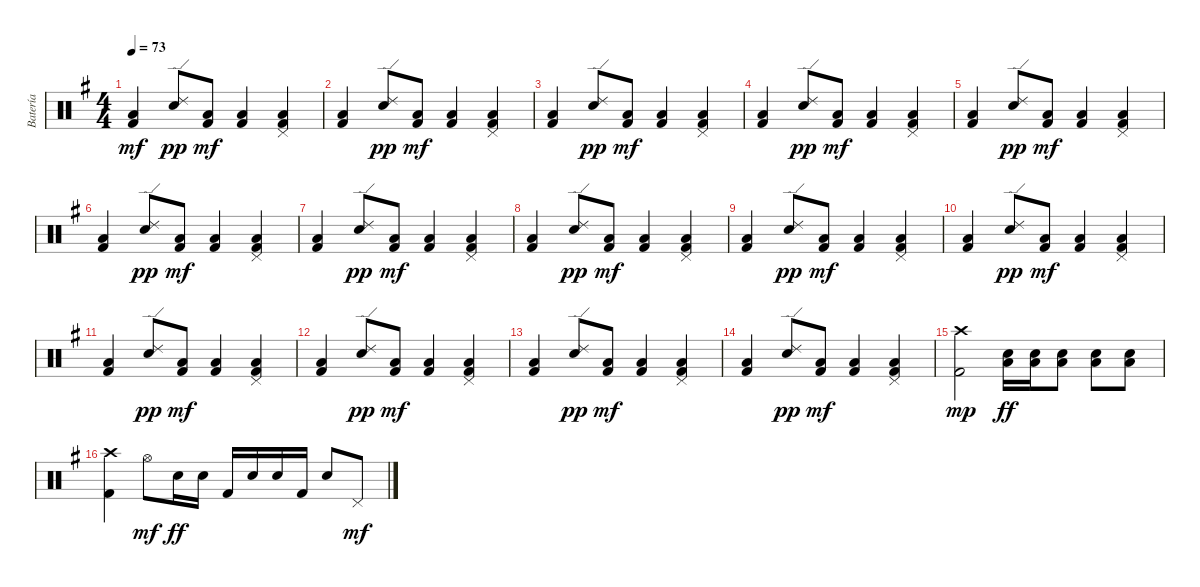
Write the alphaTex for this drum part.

\track ("Batería" "Batería") {instrument percussion}
\staff {score}
\articulation defaults
\ts (4 4)
\tempo 73
\clef neutral
\ks eminor
("Low Floor Tom (hit)" "Kick (hit) 2").4{dy mf} ("Electric Snare (hit)" "Ride (edge) 2").8{dy pp} ("Low Floor Tom (hit)" "Kick (hit) 2").8{dy mf} ("Low Floor Tom (hit)" "Kick (hit) 2").4 ("Pedal Hi-Hat (hit)" "Low Floor Tom (hit)" "Kick (hit) 2").4 |
("Low Floor Tom (hit)" "Kick (hit) 2").4 ("Electric Snare (hit)" "Ride (edge) 2").8{dy pp} ("Low Floor Tom (hit)" "Kick (hit) 2").8{dy mf} ("Low Floor Tom (hit)" "Kick (hit) 2").4 ("Pedal Hi-Hat (hit)" "Low Floor Tom (hit)" "Kick (hit) 2").4 |
("Low Floor Tom (hit)" "Kick (hit) 2").4 ("Electric Snare (hit)" "Ride (edge) 2").8{dy pp} ("Low Floor Tom (hit)" "Kick (hit) 2").8{dy mf} ("Low Floor Tom (hit)" "Kick (hit) 2").4 ("Pedal Hi-Hat (hit)" "Low Floor Tom (hit)" "Kick (hit) 2").4 |
("Low Floor Tom (hit)" "Kick (hit) 2").4 ("Electric Snare (hit)" "Ride (edge) 2").8{dy pp} ("Low Floor Tom (hit)" "Kick (hit) 2").8{dy mf} ("Low Floor Tom (hit)" "Kick (hit) 2").4 ("Pedal Hi-Hat (hit)" "Low Floor Tom (hit)" "Kick (hit) 2").4 |
("Low Floor Tom (hit)" "Kick (hit) 2").4 ("Electric Snare (hit)" "Ride (edge) 2").8{dy pp} ("Low Floor Tom (hit)" "Kick (hit) 2").8{dy mf} ("Low Floor Tom (hit)" "Kick (hit) 2").4 ("Pedal Hi-Hat (hit)" "Low Floor Tom (hit)" "Kick (hit) 2").4 |
("Low Floor Tom (hit)" "Kick (hit) 2").4 ("Electric Snare (hit)" "Ride (edge) 2").8{dy pp} ("Low Floor Tom (hit)" "Kick (hit) 2").8{dy mf} ("Low Floor Tom (hit)" "Kick (hit) 2").4 ("Pedal Hi-Hat (hit)" "Low Floor Tom (hit)" "Kick (hit) 2").4 |
("Low Floor Tom (hit)" "Kick (hit) 2").4 ("Electric Snare (hit)" "Ride (edge) 2").8{dy pp} ("Low Floor Tom (hit)" "Kick (hit) 2").8{dy mf} ("Low Floor Tom (hit)" "Kick (hit) 2").4 ("Pedal Hi-Hat (hit)" "Low Floor Tom (hit)" "Kick (hit) 2").4 |
("Low Floor Tom (hit)" "Kick (hit) 2").4 ("Electric Snare (hit)" "Ride (edge) 2").8{dy pp} ("Low Floor Tom (hit)" "Kick (hit) 2").8{dy mf} ("Low Floor Tom (hit)" "Kick (hit) 2").4 ("Pedal Hi-Hat (hit)" "Low Floor Tom (hit)" "Kick (hit) 2").4 |
("Low Floor Tom (hit)" "Kick (hit) 2").4 ("Electric Snare (hit)" "Ride (edge) 2").8{dy pp} ("Low Floor Tom (hit)" "Kick (hit) 2").8{dy mf} ("Low Floor Tom (hit)" "Kick (hit) 2").4 ("Pedal Hi-Hat (hit)" "Low Floor Tom (hit)" "Kick (hit) 2").4 |
("Low Floor Tom (hit)" "Kick (hit) 2").4 ("Electric Snare (hit)" "Ride (edge) 2").8{dy pp} ("Low Floor Tom (hit)" "Kick (hit) 2").8{dy mf} ("Low Floor Tom (hit)" "Kick (hit) 2").4 ("Pedal Hi-Hat (hit)" "Low Floor Tom (hit)" "Kick (hit) 2").4 |
("Low Floor Tom (hit)" "Kick (hit) 2").4 ("Electric Snare (hit)" "Ride (edge) 2").8{dy pp} ("Low Floor Tom (hit)" "Kick (hit) 2").8{dy mf} ("Low Floor Tom (hit)" "Kick (hit) 2").4 ("Pedal Hi-Hat (hit)" "Low Floor Tom (hit)" "Kick (hit) 2").4 |
("Low Floor Tom (hit)" "Kick (hit) 2").4 ("Electric Snare (hit)" "Ride (edge) 2").8{dy pp} ("Low Floor Tom (hit)" "Kick (hit) 2").8{dy mf} ("Low Floor Tom (hit)" "Kick (hit) 2").4 ("Pedal Hi-Hat (hit)" "Low Floor Tom (hit)" "Kick (hit) 2").4 |
("Low Floor Tom (hit)" "Kick (hit) 2").4 ("Electric Snare (hit)" "Ride (edge) 2").8{dy pp} ("Low Floor Tom (hit)" "Kick (hit) 2").8{dy mf} ("Low Floor Tom (hit)" "Kick (hit) 2").4 ("Pedal Hi-Hat (hit)" "Low Floor Tom (hit)" "Kick (hit) 2").4 |
("Low Floor Tom (hit)" "Kick (hit) 2").4 ("Electric Snare (hit)" "Ride (edge) 2").8{dy pp} ("Low Floor Tom (hit)" "Kick (hit) 2").8{dy mf} ("Low Floor Tom (hit)" "Kick (hit) 2").4 ("Pedal Hi-Hat (hit)" "Low Floor Tom (hit)" "Kick (hit) 2").4 |
("Crash high (hit)" "Kick (hit) 2").2{dy mp} ("Electric Snare (hit)" "Low Floor Tom (hit)").16{dy ff} ("Electric Snare (hit)" "Low Floor Tom (hit)").16 ("Electric Snare (hit)" "Low Floor Tom (hit)").8 ("Electric Snare (hit)" "Low Floor Tom (hit)").8 ("Electric Snare (hit)" "Low Floor Tom (hit)").8 |
("Crash high (hit)" "Kick (hit) 2").4 "Hi-Hat (open)".8{dy mf} "Electric Snare (hit)".16{dy ff} "Electric Snare (hit)".16 "Kick (hit) 2".16 "Electric Snare (hit)".16 "Electric Snare (hit)".16 "Kick (hit) 2".16 "Electric Snare (hit)".8 "Pedal Hi-Hat (hit)".8{dy mf}
